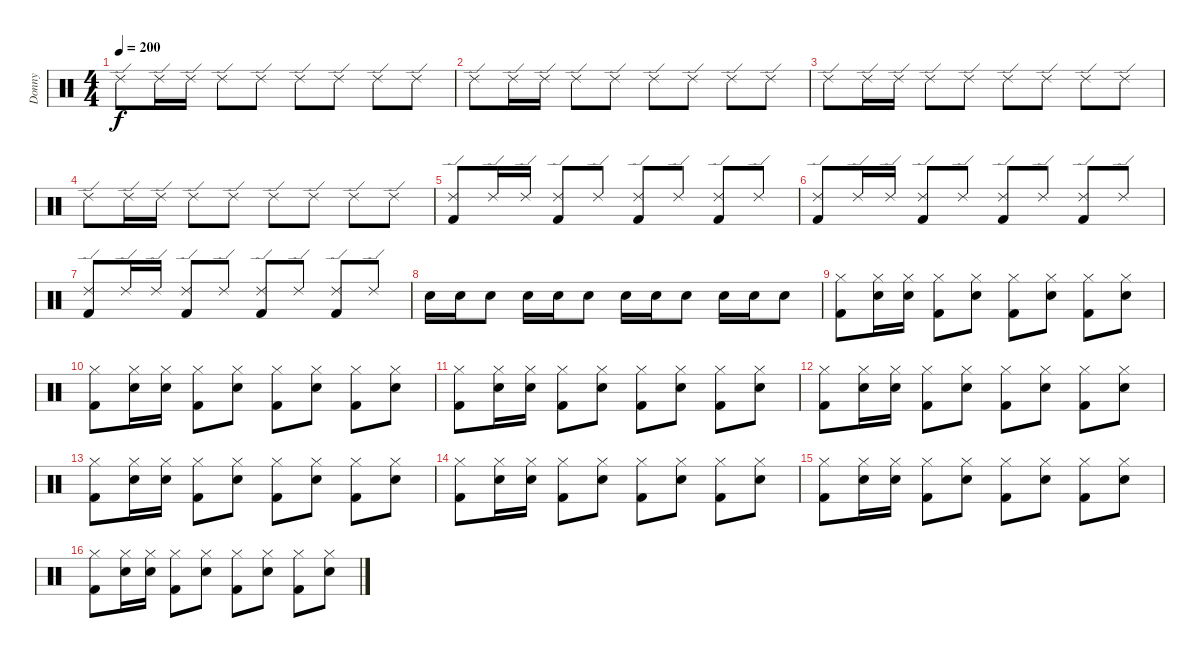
\track ("Donny" "Donny") {instrument percussion}
\staff {score}
\articulation defaults
\ts (4 4)
\tempo 200
\clef neutral
\ks c "Ride (edge) 2".8{dy f} "Ride (edge) 2".16 "Ride (edge) 2".16 "Ride (edge) 2".8 "Ride (edge) 2".8 "Ride (edge) 2".8 "Ride (edge) 2".8 "Ride (edge) 2".8 "Ride (edge) 2".8
|
"Ride (edge) 2".8 "Ride (edge) 2".16 "Ride (edge) 2".16 "Ride (edge) 2".8 "Ride (edge) 2".8 "Ride (edge) 2".8 "Ride (edge) 2".8 "Ride (edge) 2".8 "Ride (edge) 2".8 |
"Ride (edge) 2".8 "Ride (edge) 2".16 "Ride (edge) 2".16 "Ride (edge) 2".8 "Ride (edge) 2".8 "Ride (edge) 2".8 "Ride (edge) 2".8 "Ride (edge) 2".8 "Ride (edge) 2".8 |
"Ride (edge) 2".8 "Ride (edge) 2".16 "Ride (edge) 2".16 "Ride (edge) 2".8 "Ride (edge) 2".8 "Ride (edge) 2".8 "Ride (edge) 2".8 "Ride (edge) 2".8 "Ride (edge) 2".8 |
("Ride (edge) 2" "Kick (hit) 2").8 "Ride (edge) 2".16 "Ride (edge) 2".16 ("Ride (edge) 2" "Kick (hit) 2").8 "Ride (edge) 2".8 ("Ride (edge) 2" "Kick (hit) 2").8 "Ride (edge) 2".8 ("Ride (edge) 2" "Kick (hit) 2").8 "Ride (edge) 2".8 |
("Ride (edge) 2" "Kick (hit) 2").8 "Ride (edge) 2".16 "Ride (edge) 2".16 ("Ride (edge) 2" "Kick (hit) 2").8 "Ride (edge) 2".8 ("Ride (edge) 2" "Kick (hit) 2").8 "Ride (edge) 2".8 ("Ride (edge) 2" "Kick (hit) 2").8 "Ride (edge) 2".8 |
("Ride (edge) 2" "Kick (hit) 2").8 "Ride (edge) 2".16 "Ride (edge) 2".16 ("Ride (edge) 2" "Kick (hit) 2").8 "Ride (edge) 2".8 ("Ride (edge) 2" "Kick (hit) 2").8 "Ride (edge) 2".8 ("Ride (edge) 2" "Kick (hit) 2").8 "Ride (edge) 2".8 |
"Electric Snare (hit)".16 "Electric Snare (hit)".16 "Electric Snare (hit)".8 "Electric Snare (hit)".16 "Electric Snare (hit)".16 "Electric Snare (hit)".8 "Electric Snare (hit)".16 "Electric Snare (hit)".16 "Electric Snare (hit)".8 "Electric Snare (hit)".16 "Electric Snare (hit)".16 "Electric Snare (hit)".8 |
("Kick (hit) 2" "Hi-Hat (closed)").8 ("Electric Snare (hit)" "Hi-Hat (closed)").16 ("Electric Snare (hit)" "Hi-Hat (closed)").16 ("Kick (hit) 2" "Hi-Hat (closed)").8 ("Electric Snare (hit)" "Hi-Hat (closed)").8 ("Kick (hit) 2" "Hi-Hat (closed)").8 ("Electric Snare (hit)" "Hi-Hat (closed)").8 ("Kick (hit) 2" "Hi-Hat (closed)").8 ("Electric Snare (hit)" "Hi-Hat (closed)").8 |
("Kick (hit) 2" "Hi-Hat (closed)").8 ("Electric Snare (hit)" "Hi-Hat (closed)").16 ("Electric Snare (hit)" "Hi-Hat (closed)").16 ("Kick (hit) 2" "Hi-Hat (closed)").8 ("Electric Snare (hit)" "Hi-Hat (closed)").8 ("Kick (hit) 2" "Hi-Hat (closed)").8 ("Electric Snare (hit)" "Hi-Hat (closed)").8 ("Kick (hit) 2" "Hi-Hat (closed)").8 ("Electric Snare (hit)" "Hi-Hat (closed)").8 |
("Kick (hit) 2" "Hi-Hat (closed)").8 ("Electric Snare (hit)" "Hi-Hat (closed)").16 ("Electric Snare (hit)" "Hi-Hat (closed)").16 ("Kick (hit) 2" "Hi-Hat (closed)").8 ("Electric Snare (hit)" "Hi-Hat (closed)").8 ("Kick (hit) 2" "Hi-Hat (closed)").8 ("Electric Snare (hit)" "Hi-Hat (closed)").8 ("Kick (hit) 2" "Hi-Hat (closed)").8 ("Electric Snare (hit)" "Hi-Hat (closed)").8 |
("Kick (hit) 2" "Hi-Hat (closed)").8 ("Electric Snare (hit)" "Hi-Hat (closed)").16 ("Electric Snare (hit)" "Hi-Hat (closed)").16 ("Kick (hit) 2" "Hi-Hat (closed)").8 ("Electric Snare (hit)" "Hi-Hat (closed)").8 ("Kick (hit) 2" "Hi-Hat (closed)").8 ("Electric Snare (hit)" "Hi-Hat (closed)").8 ("Kick (hit) 2" "Hi-Hat (closed)").8 ("Electric Snare (hit)" "Hi-Hat (closed)").8 |
("Kick (hit) 2" "Hi-Hat (closed)").8 ("Electric Snare (hit)" "Hi-Hat (closed)").16 ("Electric Snare (hit)" "Hi-Hat (closed)").16 ("Kick (hit) 2" "Hi-Hat (closed)").8 ("Electric Snare (hit)" "Hi-Hat (closed)").8 ("Kick (hit) 2" "Hi-Hat (closed)").8 ("Electric Snare (hit)" "Hi-Hat (closed)").8 ("Kick (hit) 2" "Hi-Hat (closed)").8 ("Electric Snare (hit)" "Hi-Hat (closed)").8 |
("Kick (hit) 2" "Hi-Hat (closed)").8 ("Electric Snare (hit)" "Hi-Hat (closed)").16 ("Electric Snare (hit)" "Hi-Hat (closed)").16 ("Kick (hit) 2" "Hi-Hat (closed)").8 ("Electric Snare (hit)" "Hi-Hat (closed)").8 ("Kick (hit) 2" "Hi-Hat (closed)").8 ("Electric Snare (hit)" "Hi-Hat (closed)").8 ("Kick (hit) 2" "Hi-Hat (closed)").8 ("Electric Snare (hit)" "Hi-Hat (closed)").8 |
("Kick (hit) 2" "Hi-Hat (closed)").8 ("Electric Snare (hit)" "Hi-Hat (closed)").16 ("Electric Snare (hit)" "Hi-Hat (closed)").16 ("Kick (hit) 2" "Hi-Hat (closed)").8 ("Electric Snare (hit)" "Hi-Hat (closed)").8 ("Kick (hit) 2" "Hi-Hat (closed)").8 ("Electric Snare (hit)" "Hi-Hat (closed)").8 ("Kick (hit) 2" "Hi-Hat (closed)").8 ("Electric Snare (hit)" "Hi-Hat (closed)").8 |
("Kick (hit) 2" "Hi-Hat (closed)").8 ("Electric Snare (hit)" "Hi-Hat (closed)").16 ("Electric Snare (hit)" "Hi-Hat (closed)").16 ("Kick (hit) 2" "Hi-Hat (closed)").8 ("Electric Snare (hit)" "Hi-Hat (closed)").8 ("Kick (hit) 2" "Hi-Hat (closed)").8 ("Electric Snare (hit)" "Hi-Hat (closed)").8 ("Kick (hit) 2" "Hi-Hat (closed)").8 ("Electric Snare (hit)" "Hi-Hat (closed)").8
